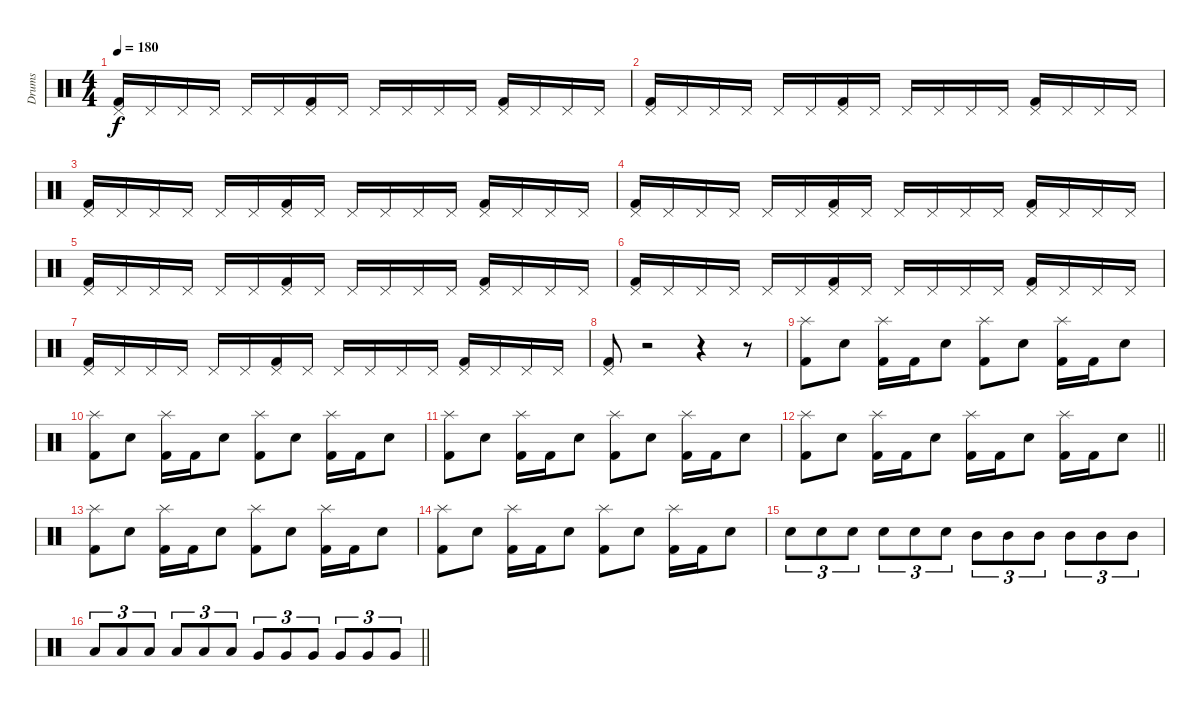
\track ("Drums" "Drums") {instrument percussion}
\staff {score}
\articulation defaults
\ts (4 4)
\tempo 180
\clef neutral
\ks c
("Pedal Hi-Hat (hit)" "Kick (hit) 2").16{dy f} "Pedal Hi-Hat (hit)".16 "Pedal Hi-Hat (hit)".16 "Pedal Hi-Hat (hit)".16 "Pedal Hi-Hat (hit)".16 "Pedal Hi-Hat (hit)".16 ("Pedal Hi-Hat (hit)" "Kick (hit) 2").16 "Pedal Hi-Hat (hit)".16 "Pedal Hi-Hat (hit)".16 "Pedal Hi-Hat (hit)".16 "Pedal Hi-Hat (hit)".16 "Pedal Hi-Hat (hit)".16 ("Pedal Hi-Hat (hit)" "Kick (hit) 2").16 "Pedal Hi-Hat (hit)".16 "Pedal Hi-Hat (hit)".16 "Pedal Hi-Hat (hit)".16 |
("Pedal Hi-Hat (hit)" "Kick (hit) 2").16 "Pedal Hi-Hat (hit)".16 "Pedal Hi-Hat (hit)".16 "Pedal Hi-Hat (hit)".16 "Pedal Hi-Hat (hit)".16 "Pedal Hi-Hat (hit)".16 ("Pedal Hi-Hat (hit)" "Kick (hit) 2").16 "Pedal Hi-Hat (hit)".16 "Pedal Hi-Hat (hit)".16 "Pedal Hi-Hat (hit)".16 "Pedal Hi-Hat (hit)".16 "Pedal Hi-Hat (hit)".16 ("Pedal Hi-Hat (hit)" "Kick (hit) 2").16 "Pedal Hi-Hat (hit)".16 "Pedal Hi-Hat (hit)".16 "Pedal Hi-Hat (hit)".16 |
("Pedal Hi-Hat (hit)" "Kick (hit) 2").16 "Pedal Hi-Hat (hit)".16 "Pedal Hi-Hat (hit)".16 "Pedal Hi-Hat (hit)".16 "Pedal Hi-Hat (hit)".16 "Pedal Hi-Hat (hit)".16 ("Pedal Hi-Hat (hit)" "Kick (hit) 2").16 "Pedal Hi-Hat (hit)".16 "Pedal Hi-Hat (hit)".16 "Pedal Hi-Hat (hit)".16 "Pedal Hi-Hat (hit)".16 "Pedal Hi-Hat (hit)".16 ("Pedal Hi-Hat (hit)" "Kick (hit) 2").16 "Pedal Hi-Hat (hit)".16 "Pedal Hi-Hat (hit)".16 "Pedal Hi-Hat (hit)".16 |
("Pedal Hi-Hat (hit)" "Kick (hit) 2").16 "Pedal Hi-Hat (hit)".16 "Pedal Hi-Hat (hit)".16 "Pedal Hi-Hat (hit)".16 "Pedal Hi-Hat (hit)".16 "Pedal Hi-Hat (hit)".16 ("Pedal Hi-Hat (hit)" "Kick (hit) 2").16 "Pedal Hi-Hat (hit)".16 "Pedal Hi-Hat (hit)".16 "Pedal Hi-Hat (hit)".16 "Pedal Hi-Hat (hit)".16 "Pedal Hi-Hat (hit)".16 ("Pedal Hi-Hat (hit)" "Kick (hit) 2").16 "Pedal Hi-Hat (hit)".16 "Pedal Hi-Hat (hit)".16 "Pedal Hi-Hat (hit)".16 |
("Pedal Hi-Hat (hit)" "Kick (hit) 2").16 "Pedal Hi-Hat (hit)".16 "Pedal Hi-Hat (hit)".16 "Pedal Hi-Hat (hit)".16 "Pedal Hi-Hat (hit)".16 "Pedal Hi-Hat (hit)".16 ("Pedal Hi-Hat (hit)" "Kick (hit) 2").16 "Pedal Hi-Hat (hit)".16 "Pedal Hi-Hat (hit)".16 "Pedal Hi-Hat (hit)".16 "Pedal Hi-Hat (hit)".16 "Pedal Hi-Hat (hit)".16 ("Pedal Hi-Hat (hit)" "Kick (hit) 2").16 "Pedal Hi-Hat (hit)".16 "Pedal Hi-Hat (hit)".16 "Pedal Hi-Hat (hit)".16 |
("Pedal Hi-Hat (hit)" "Kick (hit) 2").16 "Pedal Hi-Hat (hit)".16 "Pedal Hi-Hat (hit)".16 "Pedal Hi-Hat (hit)".16 "Pedal Hi-Hat (hit)".16 "Pedal Hi-Hat (hit)".16 ("Pedal Hi-Hat (hit)" "Kick (hit) 2").16 "Pedal Hi-Hat (hit)".16 "Pedal Hi-Hat (hit)".16 "Pedal Hi-Hat (hit)".16 "Pedal Hi-Hat (hit)".16 "Pedal Hi-Hat (hit)".16 ("Pedal Hi-Hat (hit)" "Kick (hit) 2").16 "Pedal Hi-Hat (hit)".16 "Pedal Hi-Hat (hit)".16 "Pedal Hi-Hat (hit)".16 |
("Pedal Hi-Hat (hit)" "Kick (hit) 2").16 "Pedal Hi-Hat (hit)".16 "Pedal Hi-Hat (hit)".16 "Pedal Hi-Hat (hit)".16 "Pedal Hi-Hat (hit)".16 "Pedal Hi-Hat (hit)".16 ("Pedal Hi-Hat (hit)" "Kick (hit) 2").16 "Pedal Hi-Hat (hit)".16 "Pedal Hi-Hat (hit)".16 "Pedal Hi-Hat (hit)".16 "Pedal Hi-Hat (hit)".16 "Pedal Hi-Hat (hit)".16 ("Pedal Hi-Hat (hit)" "Kick (hit) 2").16 "Pedal Hi-Hat (hit)".16 "Pedal Hi-Hat (hit)".16 "Pedal Hi-Hat (hit)".16 |
("Pedal Hi-Hat (hit)" "Kick (hit) 2").8 r.2 r.4 r.8 |
("Splash (hit)" "Kick (hit) 2").8 "Snare (hit) 2".8 ("Splash (hit)" "Kick (hit) 2").16 "Kick (hit) 2".16 "Snare (hit) 2".8 ("Splash (hit)" "Kick (hit) 2").8 "Snare (hit) 2".8 ("Splash (hit)" "Kick (hit) 2").16 "Kick (hit) 2".16 "Snare (hit) 2".8 |
("Splash (hit)" "Kick (hit) 2").8 "Snare (hit) 2".8 ("Splash (hit)" "Kick (hit) 2").16 "Kick (hit) 2".16 "Snare (hit) 2".8 ("Splash (hit)" "Kick (hit) 2").8 "Snare (hit) 2".8 ("Splash (hit)" "Kick (hit) 2").16 "Kick (hit) 2".16 "Snare (hit) 2".8 |
("Splash (hit)" "Kick (hit) 2").8 "Snare (hit) 2".8 ("Splash (hit)" "Kick (hit) 2").16 "Kick (hit) 2".16 "Snare (hit) 2".8 ("Splash (hit)" "Kick (hit) 2").8 "Snare (hit) 2".8 ("Splash (hit)" "Kick (hit) 2").16 "Kick (hit) 2".16 "Snare (hit) 2".8 |
\barLineRight lightlight
("Splash (hit)" "Kick (hit) 2").8 "Snare (hit) 2".8 ("Splash (hit)" "Kick (hit) 2").16 "Kick (hit) 2".16 "Snare (hit) 2".8 ("Splash (hit)" "Kick (hit) 2").16 "Kick (hit) 2".16 "Snare (hit) 2".8 ("Splash (hit)" "Kick (hit) 2").16 "Kick (hit) 2".16 "Snare (hit) 2".8 |
("Splash (hit)" "Kick (hit) 2").8 "Snare (hit) 2".8 ("Splash (hit)" "Kick (hit) 2").16 "Kick (hit) 2".16 "Snare (hit) 2".8 ("Splash (hit)" "Kick (hit) 2").8 "Snare (hit) 2".8 ("Splash (hit)" "Kick (hit) 2").16 "Kick (hit) 2".16 "Snare (hit) 2".8 |
("Splash (hit)" "Kick (hit) 2").8 "Snare (hit) 2".8 ("Splash (hit)" "Kick (hit) 2").16 "Kick (hit) 2".16 "Snare (hit) 2".8 ("Splash (hit)" "Kick (hit) 2").8 "Snare (hit) 2".8 ("Splash (hit)" "Kick (hit) 2").16 "Kick (hit) 2".16 "Snare (hit) 2".8 |
"Snare (hit) 2".8{tu (3 2)} "Snare (hit) 2".8{tu (3 2)} "Snare (hit) 2".8{tu (3 2)} "Snare (hit) 2".8{tu (3 2)} "Snare (hit) 2".8{tu (3 2)} "Snare (hit) 2".8{tu (3 2)} "Mid Tom (hit)".8{tu (3 2)} "Mid Tom (hit)".8{tu (3 2)} "Mid Tom (hit)".8{tu (3 2)} "Mid Tom (hit)".8{tu (3 2)} "Mid Tom (hit)".8{tu (3 2)} "Mid Tom (hit)".8{tu (3 2)} |
\barLineRight lightlight "Low Tom (hit)".8{tu (3 2)} "Low Tom (hit)".8{tu (3 2)} "Low Tom (hit)".8{tu (3 2)} "Low Tom (hit)".8{tu (3 2)} "Low Tom (hit)".8{tu (3 2)} "Low Tom (hit)".8{tu (3 2)} "Very Low Tom (hit)".8{tu (3 2)} "Very Low Tom (hit)".8{tu (3 2)} "Very Low Tom (hit)".8{tu (3 2)} "Very Low Tom (hit)".8{tu (3 2)} "Very Low Tom (hit)".8{tu (3 2)} "Very Low Tom (hit)".8{tu (3 2)}
